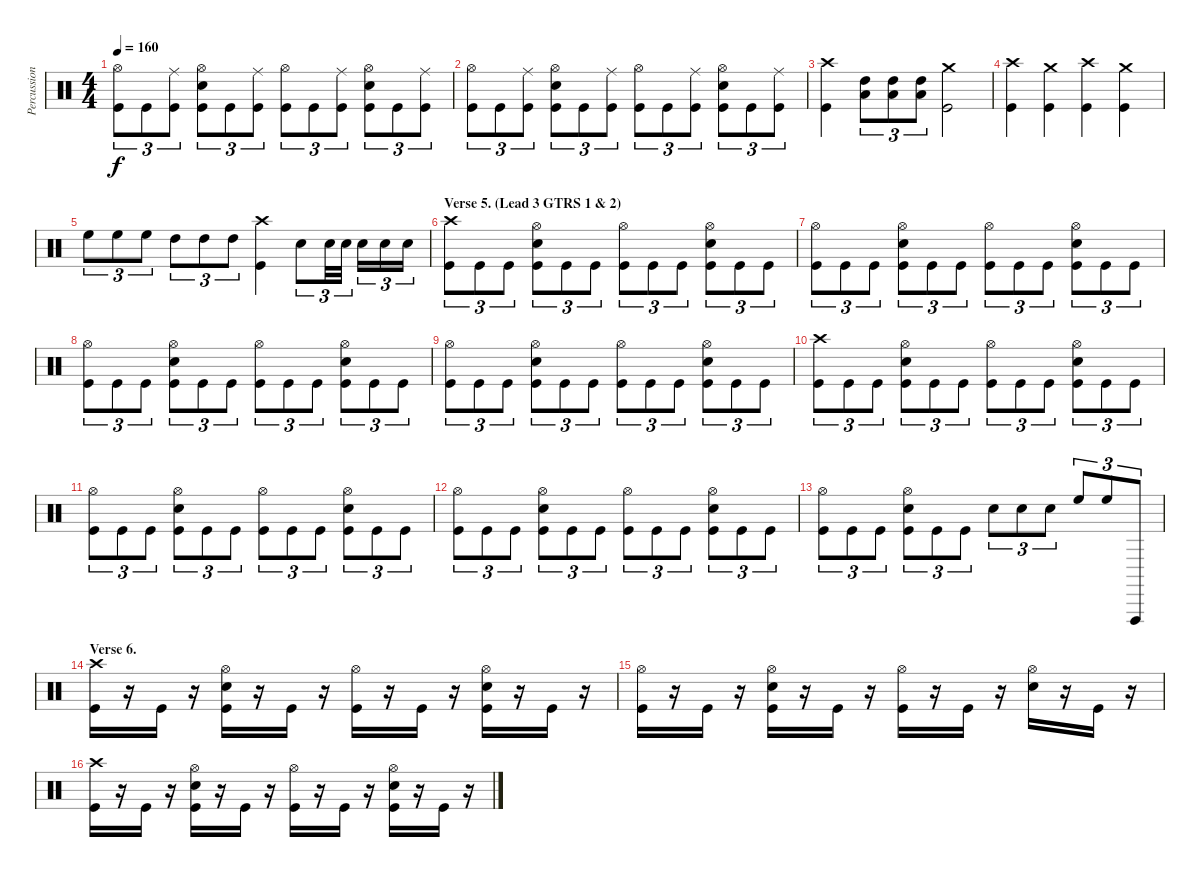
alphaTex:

\track ("Percussion" "Percussion") {instrument percussion}
\staff {score}
\articulation defaults
\ts (4 4)
\tempo 160
\clef neutral
\ks c
("Hi-Hat (open)" "Kick (hit)").8{tu (3 2) dy f} "Kick (hit)".8{tu (3 2)} ("Ride (middle)" "Kick (hit)").8{tu (3 2)} ("Hi-Hat (open)" "Electric Snare (hit)" "Kick (hit)").8{tu (3 2)} "Kick (hit)".8{tu (3 2)} ("Ride (middle)" "Kick (hit)").8{tu (3 2)} ("Hi-Hat (open)" "Kick (hit)").8{tu (3 2)} "Kick (hit)".8{tu (3 2)} ("Ride (middle)" "Kick (hit)").8{tu (3 2)} ("Hi-Hat (open)" "Electric Snare (hit)" "Kick (hit)").8{tu (3 2)} "Kick (hit)".8{tu (3 2)} ("Ride (middle)" "Kick (hit)").8{tu (3 2)} |
("Hi-Hat (open)" "Kick (hit)").8{tu (3 2)} "Kick (hit)".8{tu (3 2)} ("Ride (middle)" "Kick (hit)").8{tu (3 2)} ("Hi-Hat (open)" "Electric Snare (hit)" "Kick (hit)").8{tu (3 2)} "Kick (hit)".8{tu (3 2)} ("Ride (middle)" "Kick (hit)").8{tu (3 2)} ("Hi-Hat (open)" "Kick (hit)").8{tu (3 2)} "Kick (hit)".8{tu (3 2)} ("Ride (middle)" "Kick (hit)").8{tu (3 2)} ("Hi-Hat (open)" "Electric Snare (hit)" "Kick (hit)").8{tu (3 2)} "Kick (hit)".8{tu (3 2)} ("Ride (middle)" "Kick (hit)").8{tu (3 2)} |
("Crash high (hit)" "Kick (hit)").4 ("Low Tom (hit)" "High Tom (hit)").8{tu (3 2)} ("Low Tom (hit)" "High Tom (hit)").8{tu (3 2)} ("Low Tom (hit)" "High Tom (hit)").8{tu (3 2)} ("Crash medium (hit)" "Kick (hit)").2 |
("Crash high (hit)" "Kick (hit)").4 ("Crash medium (hit)" "Kick (hit)").4 ("Crash high (hit)" "Kick (hit)").4 ("Crash medium (hit)" "Kick (hit)").4 |
"High Floor Tom (hit)".8{tu (3 2)} "High Floor Tom (hit)".8{tu (3 2)} "High Floor Tom (hit)".8{tu (3 2)} "High Tom (hit)".8{tu (3 2)} "High Tom (hit)".8{tu (3 2)} "High Tom (hit)".8{tu (3 2)} ("Crash high (hit)" "Kick (hit)").4 "Electric Snare (hit)".8{tu (3 2)} "Electric Snare (hit)".32{tu (3 2)} "Electric Snare (hit)".32{tu (3 2)} "Electric Snare (hit)".16{tu (3 2)} "Electric Snare (hit)".16{tu (3 2)} "Electric Snare (hit)".16{tu (3 2)} |
\section ("" "Verse 5. (Lead 3 GTRS 1 & 2)")
("Crash high (hit)" "Kick (hit)").8{tu (3 2)} "Kick (hit)".8{tu (3 2)} "Kick (hit)".8{tu (3 2)} ("Hi-Hat (open)" "Electric Snare (hit)" "Kick (hit)").8{tu (3 2)} "Kick (hit)".8{tu (3 2)} "Kick (hit)".8{tu (3 2)} ("Hi-Hat (open)" "Kick (hit)").8{tu (3 2)} "Kick (hit)".8{tu (3 2)} "Kick (hit)".8{tu (3 2)} ("Hi-Hat (open)" "Electric Snare (hit)" "Kick (hit)").8{tu (3 2)} "Kick (hit)".8{tu (3 2)} "Kick (hit)".8{tu (3 2)} |
("Hi-Hat (open)" "Kick (hit)").8{tu (3 2)} "Kick (hit)".8{tu (3 2)} "Kick (hit)".8{tu (3 2)} ("Hi-Hat (open)" "Electric Snare (hit)" "Kick (hit)").8{tu (3 2)} "Kick (hit)".8{tu (3 2)} "Kick (hit)".8{tu (3 2)} ("Hi-Hat (open)" "Kick (hit)").8{tu (3 2)} "Kick (hit)".8{tu (3 2)} "Kick (hit)".8{tu (3 2)} ("Hi-Hat (open)" "Electric Snare (hit)" "Kick (hit)").8{tu (3 2)} "Kick (hit)".8{tu (3 2)} "Kick (hit)".8{tu (3 2)} |
("Hi-Hat (open)" "Kick (hit)").8{tu (3 2)} "Kick (hit)".8{tu (3 2)} "Kick (hit)".8{tu (3 2)} ("Hi-Hat (open)" "Electric Snare (hit)" "Kick (hit)").8{tu (3 2)} "Kick (hit)".8{tu (3 2)} "Kick (hit)".8{tu (3 2)} ("Hi-Hat (open)" "Kick (hit)").8{tu (3 2)} "Kick (hit)".8{tu (3 2)} "Kick (hit)".8{tu (3 2)} ("Hi-Hat (open)" "Electric Snare (hit)" "Kick (hit)").8{tu (3 2)} "Kick (hit)".8{tu (3 2)} "Kick (hit)".8{tu (3 2)} |
("Hi-Hat (open)" "Kick (hit)").8{tu (3 2)} "Kick (hit)".8{tu (3 2)} "Kick (hit)".8{tu (3 2)} ("Hi-Hat (open)" "Electric Snare (hit)" "Kick (hit)").8{tu (3 2)} "Kick (hit)".8{tu (3 2)} "Kick (hit)".8{tu (3 2)} ("Hi-Hat (open)" "Kick (hit)").8{tu (3 2)} "Kick (hit)".8{tu (3 2)} "Kick (hit)".8{tu (3 2)} ("Hi-Hat (open)" "Electric Snare (hit)" "Kick (hit)").8{tu (3 2)} "Kick (hit)".8{tu (3 2)} "Kick (hit)".8{tu (3 2)} |
("Crash high (hit)" "Kick (hit)").8{tu (3 2)} "Kick (hit)".8{tu (3 2)} "Kick (hit)".8{tu (3 2)} ("Hi-Hat (open)" "Electric Snare (hit)" "Kick (hit)").8{tu (3 2)} "Kick (hit)".8{tu (3 2)} "Kick (hit)".8{tu (3 2)} ("Hi-Hat (open)" "Kick (hit)").8{tu (3 2)} "Kick (hit)".8{tu (3 2)} "Kick (hit)".8{tu (3 2)} ("Hi-Hat (open)" "Electric Snare (hit)" "Kick (hit)").8{tu (3 2)} "Kick (hit)".8{tu (3 2)} "Kick (hit)".8{tu (3 2)} |
("Hi-Hat (open)" "Kick (hit)").8{tu (3 2)} "Kick (hit)".8{tu (3 2)} "Kick (hit)".8{tu (3 2)} ("Hi-Hat (open)" "Electric Snare (hit)" "Kick (hit)").8{tu (3 2)} "Kick (hit)".8{tu (3 2)} "Kick (hit)".8{tu (3 2)} ("Hi-Hat (open)" "Kick (hit)").8{tu (3 2)} "Kick (hit)".8{tu (3 2)} "Kick (hit)".8{tu (3 2)} ("Hi-Hat (open)" "Electric Snare (hit)" "Kick (hit)").8{tu (3 2)} "Kick (hit)".8{tu (3 2)} "Kick (hit)".8{tu (3 2)} |
("Hi-Hat (open)" "Kick (hit)").8{tu (3 2)} "Kick (hit)".8{tu (3 2)} "Kick (hit)".8{tu (3 2)} ("Hi-Hat (open)" "Electric Snare (hit)" "Kick (hit)").8{tu (3 2)} "Kick (hit)".8{tu (3 2)} "Kick (hit)".8{tu (3 2)} ("Hi-Hat (open)" "Kick (hit)").8{tu (3 2)} "Kick (hit)".8{tu (3 2)} "Kick (hit)".8{tu (3 2)} ("Hi-Hat (open)" "Electric Snare (hit)" "Kick (hit)").8{tu (3 2)} "Kick (hit)".8{tu (3 2)} "Kick (hit)".8{tu (3 2)} |
("Hi-Hat (open)" "Kick (hit)").8{tu (3 2)} "Kick (hit)".8{tu (3 2)} "Kick (hit)".8{tu (3 2)} ("Hi-Hat (open)" "Electric Snare (hit)" "Kick (hit)").8{tu (3 2)} "Kick (hit)".8{tu (3 2)} "Kick (hit)".8{tu (3 2)} "Electric Snare (hit)".8{tu (3 2)} "Electric Snare (hit)".8{tu (3 2)} "Electric Snare (hit)".8{tu (3 2)} "High Floor Tom (hit)".8{tu (3 2)} "High Floor Tom (hit)".8{tu (3 2)} "Vibraslap (hit)".8{tu (3 2)} |
\section ("" "Verse 6.")
("Crash high (hit)" "Kick (hit)").16 r.16 "Kick (hit)".16 r.16 ("Hi-Hat (open)" "Electric Snare (hit)" "Kick (hit)").16 r.16 "Kick (hit)".16 r.16 ("Hi-Hat (open)" "Kick (hit)").16 r.16 "Kick (hit)".16 r.16 ("Hi-Hat (open)" "Electric Snare (hit)" "Kick (hit)").16 r.16 "Kick (hit)".16 r.16 |
("Hi-Hat (open)" "Kick (hit)").16 r.16 "Kick (hit)".16 r.16 ("Hi-Hat (open)" "Electric Snare (hit)" "Kick (hit)").16 r.16 "Kick (hit)".16 r.16 ("Hi-Hat (open)" "Kick (hit)").16 r.16 "Kick (hit)".16 r.16 ("Hi-Hat (open)" "Electric Snare (hit)").16 r.16 "Kick (hit)".16 r.16 |
("Crash high (hit)" "Kick (hit)").16 r.16 "Kick (hit)".16 r.16 ("Hi-Hat (open)" "Electric Snare (hit)" "Kick (hit)").16 r.16 "Kick (hit)".16 r.16 ("Hi-Hat (open)" "Kick (hit)").16 r.16 "Kick (hit)".16 r.16 ("Hi-Hat (open)" "Electric Snare (hit)" "Kick (hit)").16 r.16 "Kick (hit)".16 r.16
